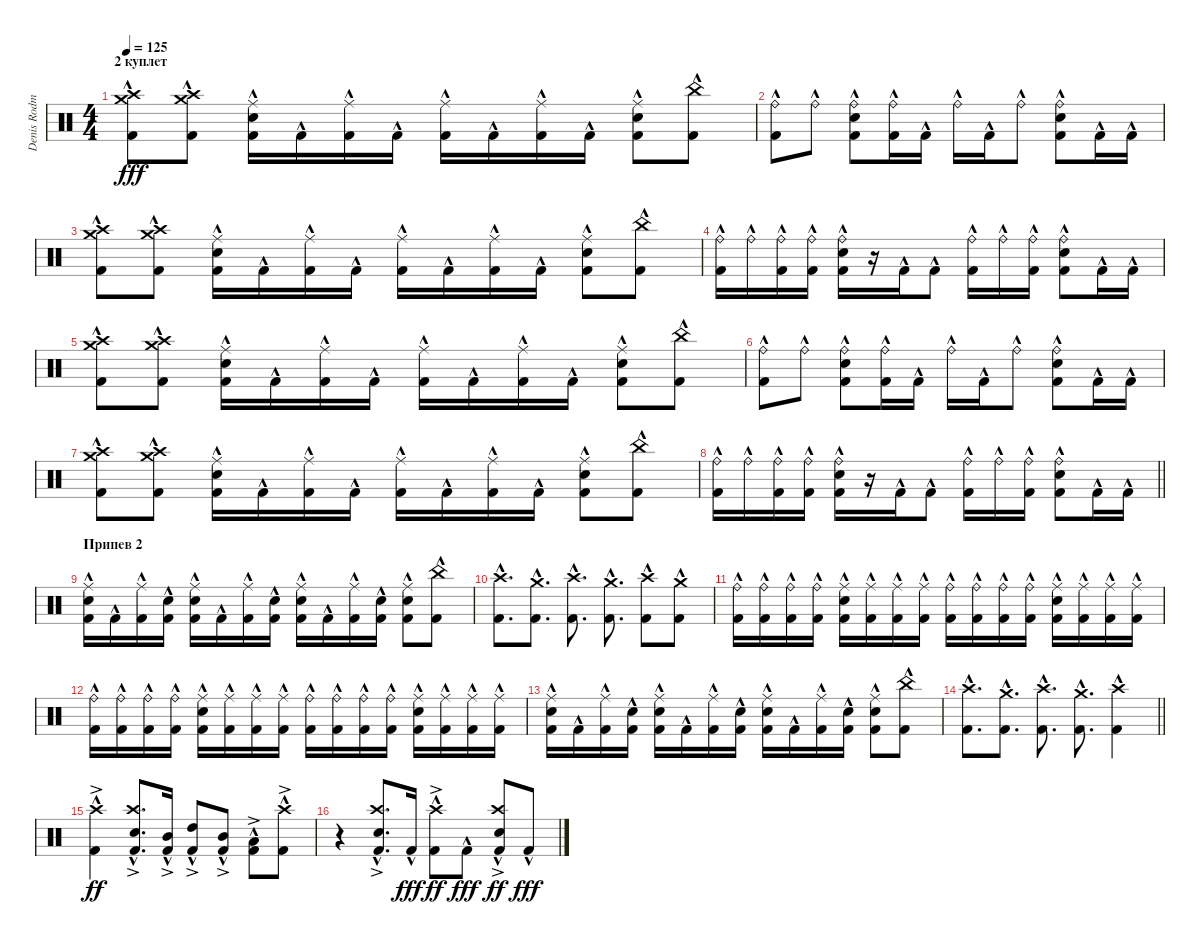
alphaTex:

\track ("Denis Rodman" "Denis Rodm") {instrument percussion}
\staff {score}
\articulation defaults
\ts (4 4)
\section ("" "2 куплет")
\tempo 125
\clef neutral
\ks c
("Kick (hit) 2"{hac} "Crash high (hit)" "Crash medium (hit)").8{dy fff} ("Kick (hit) 2"{hac} "Crash high (hit)" "Crash medium (hit)").8 ("Kick (hit) 2"{hac} "Snare (hit) 2" "Ride (middle)").16 "Kick (hit) 2"{hac}.16 ("Kick (hit) 2"{hac} "Ride (middle)").16 "Kick (hit) 2"{hac}.16 ("Kick (hit) 2"{hac} "Ride (middle)").16 "Kick (hit) 2"{hac}.16 ("Kick (hit) 2"{hac} "Ride (middle)").16 "Kick (hit) 2"{hac}.16 ("Kick (hit) 2"{hac} "Snare (hit) 2" "Ride (middle)").8 ("Kick (hit) 2"{hac} "China (hit)").8 |
("Kick (hit) 2"{hac} "Ride (bell)"{hac}).8 "Ride (bell)"{hac}.8 ("Kick (hit) 2"{hac} "Snare (hit) 2" "Ride (bell)"{hac}).8 ("Kick (hit) 2"{hac} "Ride (bell)"{hac}).16 "Kick (hit) 2"{hac}.16 "Ride (bell)"{hac}.16 "Kick (hit) 2"{hac}.16 "Ride (bell)"{hac}.8 ("Kick (hit) 2"{hac} "Snare (hit) 2" "Ride (bell)"{hac}).8 "Kick (hit) 2"{hac}.16 "Kick (hit) 2"{hac}.16 |
("Kick (hit) 2"{hac} "Crash high (hit)" "Crash medium (hit)").8 ("Kick (hit) 2"{hac} "Crash high (hit)" "Crash medium (hit)").8 ("Kick (hit) 2"{hac} "Snare (hit) 2" "Ride (middle)"{hac}).16 "Kick (hit) 2"{hac}.16 ("Kick (hit) 2"{hac} "Ride (middle)"{hac}).16 "Kick (hit) 2"{hac}.16 ("Kick (hit) 2"{hac} "Ride (middle)"{hac}).16 "Kick (hit) 2"{hac}.16 ("Kick (hit) 2"{hac} "Ride (middle)"{hac}).16 "Kick (hit) 2"{hac}.16 ("Kick (hit) 2"{hac} "Snare (hit) 2" "Ride (middle)"{hac}).8 ("Kick (hit) 2"{hac} "China (hit)").8 |
("Kick (hit) 2"{hac} "Ride (bell)"{hac}).16 "Ride (bell)"{hac}.16 ("Kick (hit) 2"{hac} "Ride (bell)"{hac}).16 ("Kick (hit) 2"{hac} "Ride (bell)"{hac}).16 ("Kick (hit) 2"{hac} "Snare (hit) 2" "Ride (bell)"{hac}).16 r.16 "Kick (hit) 2"{hac}.16 "Kick (hit) 2"{hac}.8 ("Kick (hit) 2"{hac} "Ride (bell)"{hac}).16 "Ride (bell)"{hac}.16 ("Kick (hit) 2"{hac} "Ride (bell)"{hac}).16 ("Kick (hit) 2"{hac} "Snare (hit) 2" "Ride (bell)"{hac}).8 "Kick (hit) 2"{hac}.16 "Kick (hit) 2"{hac}.16 |
("Kick (hit) 2"{hac} "Crash high (hit)" "Crash medium (hit)").8 ("Kick (hit) 2"{hac} "Crash high (hit)" "Crash medium (hit)").8 ("Kick (hit) 2"{hac} "Snare (hit) 2" "Ride (middle)"{hac}).16 "Kick (hit) 2"{hac}.16 ("Kick (hit) 2"{hac} "Ride (middle)"{hac}).16 "Kick (hit) 2"{hac}.16 ("Kick (hit) 2"{hac} "Ride (middle)"{hac}).16 "Kick (hit) 2"{hac}.16 ("Kick (hit) 2"{hac} "Ride (middle)"{hac}).16 "Kick (hit) 2"{hac}.16 ("Kick (hit) 2"{hac} "Snare (hit) 2" "Ride (middle)"{hac}).8 ("Kick (hit) 2"{hac} "China (hit)"{hac}).8 |
("Kick (hit) 2"{hac} "Ride (bell)"{hac}).8 "Ride (bell)"{hac}.8 ("Kick (hit) 2"{hac} "Snare (hit) 2" "Ride (bell)"{hac}).8 ("Kick (hit) 2"{hac} "Ride (bell)"{hac}).16 "Kick (hit) 2"{hac}.16 "Ride (bell)"{hac}.16 "Kick (hit) 2"{hac}.16 "Ride (bell)"{hac}.8 ("Kick (hit) 2"{hac} "Snare (hit) 2" "Ride (bell)"{hac}).8 "Kick (hit) 2"{hac}.16 "Kick (hit) 2"{hac}.16 |
("Kick (hit) 2"{hac} "Crash high (hit)" "Crash medium (hit)").8 ("Kick (hit) 2"{hac} "Crash high (hit)" "Crash medium (hit)").8 ("Kick (hit) 2"{hac} "Snare (hit) 2" "Ride (middle)"{hac}).16 "Kick (hit) 2"{hac}.16 ("Kick (hit) 2"{hac} "Ride (middle)"{hac}).16 "Kick (hit) 2"{hac}.16 ("Kick (hit) 2"{hac} "Ride (middle)"{hac}).16 "Kick (hit) 2"{hac}.16 ("Kick (hit) 2"{hac} "Ride (middle)"{hac}).16 "Kick (hit) 2"{hac}.16 ("Kick (hit) 2"{hac} "Snare (hit) 2" "Ride (middle)"{hac}).8 ("Kick (hit) 2"{hac} "China (hit)"{hac}).8 |
\barLineRight lightlight
("Kick (hit) 2"{hac} "Ride (bell)"{hac}).16 "Ride (bell)"{hac}.16 ("Kick (hit) 2"{hac} "Ride (bell)"{hac}).16 ("Kick (hit) 2"{hac} "Ride (bell)"{hac}).16 ("Kick (hit) 2"{hac} "Snare (hit) 2" "Ride (bell)").16 r.16 "Kick (hit) 2"{hac}.16 "Kick (hit) 2"{hac}.8 ("Kick (hit) 2"{hac} "Ride (bell)"{hac}).16 "Ride (bell)"{hac}.16 ("Kick (hit) 2"{hac} "Ride (bell)"{hac}).16 ("Kick (hit) 2"{hac} "Snare (hit) 2" "Ride (bell)"{hac}).8 "Kick (hit) 2"{hac}.16 "Kick (hit) 2"{hac}.16 |
\section ("" "Припев 2")
("Kick (hit) 2"{hac} "Snare (hit) 2" "Ride (middle)").16 "Kick (hit) 2"{hac}.16 ("Kick (hit) 2"{hac} "Ride (middle)").16 ("Kick (hit) 2"{hac} "Snare (hit) 2").16 ("Kick (hit) 2"{hac} "Snare (hit) 2" "Ride (middle)").16 "Kick (hit) 2"{hac}.16 ("Kick (hit) 2"{hac} "Ride (middle)").16 ("Kick (hit) 2"{hac} "Snare (hit) 2").16 ("Kick (hit) 2"{hac} "Snare (hit) 2" "Ride (middle)").16 "Kick (hit) 2"{hac}.16 ("Kick (hit) 2"{hac} "Ride (middle)").16 ("Kick (hit) 2"{hac} "Snare (hit) 2").16 ("Kick (hit) 2"{hac} "Snare (hit) 2" "Ride (middle)").8 ("Kick (hit) 2"{hac} "China (hit)").8 |
("Kick (hit) 2"{hac} "Crash high (hit)").8{d} ("Kick (hit) 2"{hac} "Crash medium (hit)").8{d} ("Kick (hit) 2"{hac} "Crash high (hit)").8{d} ("Kick (hit) 2"{hac} "Crash medium (hit)").8{d} ("Kick (hit) 2"{hac} "Crash high (hit)").8 ("Kick (hit) 2"{hac} "Crash medium (hit)").8 |
("Kick (hit) 2"{hac} "Ride (bell)").16 ("Kick (hit) 2"{hac} "Ride (bell)").16 ("Kick (hit) 2"{hac} "Ride (bell)").16 ("Kick (hit) 2"{hac} "Ride (bell)").16 ("Kick (hit) 2"{hac} "Snare (hit) 2" "Ride (middle)").16 ("Kick (hit) 2"{hac} "Ride (middle)").16 ("Kick (hit) 2"{hac} "Ride (middle)").16 ("Kick (hit) 2"{hac} "Ride (middle)").16 ("Kick (hit) 2"{hac} "Ride (bell)").16 ("Kick (hit) 2"{hac} "Ride (bell)").16 ("Kick (hit) 2"{hac} "Ride (bell)").16 ("Kick (hit) 2"{hac} "Ride (bell)").16 ("Kick (hit) 2"{hac} "Snare (hit) 2" "Ride (middle)").16 ("Kick (hit) 2"{hac} "Ride (middle)").16 ("Kick (hit) 2"{hac} "Ride (middle)").16 ("Kick (hit) 2"{hac} "Ride (middle)").16 |
("Kick (hit) 2"{hac} "Ride (bell)").16 ("Kick (hit) 2"{hac} "Ride (bell)").16 ("Kick (hit) 2"{hac} "Ride (bell)").16 ("Kick (hit) 2"{hac} "Ride (bell)").16 ("Kick (hit) 2"{hac} "Snare (hit) 2" "Ride (middle)").16 ("Kick (hit) 2"{hac} "Ride (middle)").16 ("Kick (hit) 2"{hac} "Ride (middle)").16 ("Kick (hit) 2"{hac} "Ride (middle)").16 ("Kick (hit) 2"{hac} "Ride (bell)").16 ("Kick (hit) 2"{hac} "Ride (bell)").16 ("Kick (hit) 2"{hac} "Ride (bell)").16 ("Kick (hit) 2"{hac} "Ride (bell)").16 ("Kick (hit) 2"{hac} "Snare (hit) 2" "Ride (middle)").16 ("Kick (hit) 2"{hac} "Ride (middle)").16 ("Kick (hit) 2"{hac} "Ride (middle)").16 ("Kick (hit) 2"{hac} "Ride (middle)").16 |
("Kick (hit) 2"{hac} "Snare (hit) 2" "Ride (middle)").16 "Kick (hit) 2"{hac}.16 ("Kick (hit) 2"{hac} "Ride (middle)").16 ("Kick (hit) 2"{hac} "Snare (hit) 2").16 ("Kick (hit) 2"{hac} "Snare (hit) 2" "Ride (middle)").16 "Kick (hit) 2"{hac}.16 ("Kick (hit) 2"{hac} "Ride (middle)").16 ("Kick (hit) 2"{hac} "Snare (hit) 2").16 ("Kick (hit) 2"{hac} "Snare (hit) 2" "Ride (middle)").16 "Kick (hit) 2"{hac}.16 ("Kick (hit) 2"{hac} "Ride (middle)").16 ("Kick (hit) 2"{hac} "Snare (hit) 2").16 ("Kick (hit) 2"{hac} "Snare (hit) 2" "Ride (middle)").8 ("Kick (hit) 2"{hac} "China (hit)").8 |
\barLineRight lightlight
("Kick (hit) 2"{hac} "Crash high (hit)").8{d} ("Kick (hit) 2"{hac} "Crash medium (hit)").8{d} ("Kick (hit) 2"{hac} "Crash high (hit)").8{d} ("Kick (hit) 2"{hac} "Crash medium (hit)").8{d} ("Kick (hit) 2"{hac} "Crash high (hit)").4 |
("Kick (hit) 2"{hac} "Crash high (hit)"{ac}).4{dy ff} ("Kick (hit) 2"{hac} "Snare (hit) 2" "Crash high (hit)"{ac}).8{d} ("Kick (hit) 2"{hac} "Mid Tom (hit)"{ac}).16 ("Kick (hit) 2"{hac} "High Tom (hit)"{ac}).8 ("Kick (hit) 2"{hac} "Mid Tom (hit)"{ac}).8 ("Kick (hit) 2"{hac} "Low Tom (hit)"{ac}).8 ("Kick (hit) 2"{hac} "Crash high (hit)"{ac}).8 |
r.4 ("Kick (hit) 2"{hac} "Snare (hit) 2" "Crash high (hit)"{ac}).8{d} "Kick (hit) 2"{hac}.16{dy fff} ("Kick (hit) 2"{hac} "Crash high (hit)"{ac}).8{dy ff} "Kick (hit) 2"{hac}.8{dy fff} ("Kick (hit) 2"{hac} "Snare (hit) 2" "Crash high (hit)"{ac}).8{dy ff} "Kick (hit) 2"{hac}.8{dy fff}
